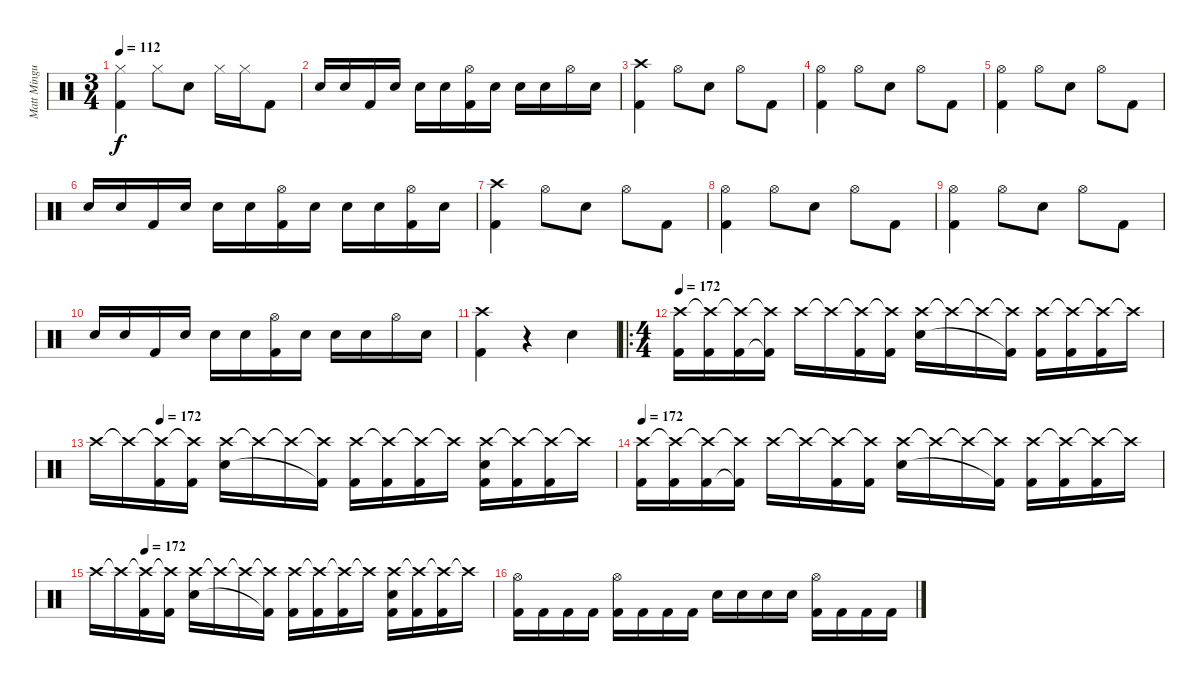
\track ("Matt Mingus" "Matt Mingu") {instrument percussion}
\staff {score}
\articulation defaults
\ts (3 4)
\tempo 112
\clef neutral
\ks c
("Hi-Hat (closed)" "Kick (hit) 2").4{dy f} "Hi-Hat (closed)".8 "Electric Snare (hit)".8 "Hi-Hat (closed)".16 "Hi-Hat (closed)".16 "Kick (hit) 2".8 |
"Electric Snare (hit)".16 "Electric Snare (hit)".16 "Kick (hit) 2".16 "Electric Snare (hit)".16 "Electric Snare (hit)".16 "Electric Snare (hit)".16 ("Hi-Hat (open)" "Kick (hit) 2").16 "Electric Snare (hit)".16 "Electric Snare (hit)".16 "Electric Snare (hit)".16 "Hi-Hat (open)".16 "Electric Snare (hit)".16 |
("Crash high (hit)" "Kick (hit) 2").4 "Hi-Hat (open)".8 "Electric Snare (hit)".8 "Hi-Hat (open)".8 "Kick (hit) 2".8 |
("Hi-Hat (open)" "Kick (hit) 2").4 "Hi-Hat (open)".8 "Electric Snare (hit)".8 "Hi-Hat (open)".8 "Kick (hit) 2".8 |
("Hi-Hat (open)" "Kick (hit) 2").4 "Hi-Hat (open)".8 "Electric Snare (hit)".8 "Hi-Hat (open)".8 "Kick (hit) 2".8 |
"Electric Snare (hit)".16 "Electric Snare (hit)".16 "Kick (hit) 2".16 "Electric Snare (hit)".16 "Electric Snare (hit)".16 "Electric Snare (hit)".16 ("Hi-Hat (open)" "Kick (hit) 2").16 "Electric Snare (hit)".16 "Electric Snare (hit)".16 "Electric Snare (hit)".16 ("Hi-Hat (open)" "Kick (hit) 2").16 "Electric Snare (hit)".16 |
("Crash high (hit)" "Kick (hit) 2").4 "Hi-Hat (open)".8 "Electric Snare (hit)".8 "Hi-Hat (open)".8 "Kick (hit) 2".8 |
("Hi-Hat (open)" "Kick (hit) 2").4 "Hi-Hat (open)".8 "Electric Snare (hit)".8 "Hi-Hat (open)".8 "Kick (hit) 2".8 |
("Hi-Hat (open)" "Kick (hit) 2").4 "Hi-Hat (open)".8 "Electric Snare (hit)".8 "Hi-Hat (open)".8 "Kick (hit) 2".8 |
"Electric Snare (hit)".16 "Electric Snare (hit)".16 "Kick (hit) 2".16 "Electric Snare (hit)".16 "Electric Snare (hit)".16 "Electric Snare (hit)".16 ("Hi-Hat (open)" "Kick (hit) 2").16 "Electric Snare (hit)".16 "Electric Snare (hit)".16 "Electric Snare (hit)".16 "Hi-Hat (open)".16 "Electric Snare (hit)".16 |
("Crash high (hit)" "Kick (hit) 2").4 r.4 "Electric Snare (hit)".4 |
\ro
\ts (4 4)
\tempo 172
("Crash high (hit)" "Kick (hit) 2").16 ("Crash high (hit)"{t} "Kick (hit) 2").16 ("Crash high (hit)"{t} "Kick (hit) 2").16 ("Crash high (hit)"{t} "Kick (hit) 2"{t}).16 "Crash high (hit)".16 "Crash high (hit)"{t}.16 ("Crash high (hit)"{t} "Kick (hit) 2").16 ("Crash high (hit)"{t} "Kick (hit) 2").16 ("Crash high (hit)" "Electric Snare (hit)").16 "Crash high (hit)"{t}.16 "Crash high (hit)"{t}.16 ("Crash high (hit)"{t} "Kick (hit) 2"{t}).16 ("Crash high (hit)" "Kick (hit) 2").16 ("Crash high (hit)"{t} "Kick (hit) 2").16 ("Crash high (hit)"{t} "Kick (hit) 2").16 "Crash high (hit)"{t}.16 |
\tempo (172 0.125)
"Crash high (hit)".16 "Crash high (hit)"{t}.16 ("Crash high (hit)"{t} "Kick (hit) 2").16 ("Crash high (hit)"{t} "Kick (hit) 2").16 ("Crash high (hit)" "Electric Snare (hit)").16 "Crash high (hit)"{t}.16 "Crash high (hit)"{t}.16 ("Crash high (hit)"{t} "Kick (hit) 2"{t}).16 ("Crash high (hit)" "Kick (hit) 2").16 ("Crash high (hit)"{t} "Kick (hit) 2").16 ("Crash high (hit)"{t} "Kick (hit) 2").16 "Crash high (hit)"{t}.16 ("Crash high (hit)" "Electric Snare (hit)" "Kick (hit) 2").16 ("Crash high (hit)"{t} "Kick (hit) 2").16 ("Crash high (hit)"{t} "Kick (hit) 2").16 "Crash high (hit)"{t}.16 |
\tempo 172
("Crash high (hit)" "Kick (hit) 2").16 ("Crash high (hit)"{t} "Kick (hit) 2").16 ("Crash high (hit)"{t} "Kick (hit) 2").16 ("Crash high (hit)"{t} "Kick (hit) 2"{t}).16 "Crash high (hit)".16 "Crash high (hit)"{t}.16 ("Crash high (hit)"{t} "Kick (hit) 2").16 ("Crash high (hit)"{t} "Kick (hit) 2").16 ("Crash high (hit)" "Electric Snare (hit)").16 "Crash high (hit)"{t}.16 "Crash high (hit)"{t}.16 ("Crash high (hit)"{t} "Kick (hit) 2"{t}).16 ("Crash high (hit)" "Kick (hit) 2").16 ("Crash high (hit)"{t} "Kick (hit) 2").16 ("Crash high (hit)"{t} "Kick (hit) 2").16 "Crash high (hit)"{t}.16 |
\tempo (172 0.125)
"Crash high (hit)".16 "Crash high (hit)"{t}.16 ("Crash high (hit)"{t} "Kick (hit) 2").16 ("Crash high (hit)"{t} "Kick (hit) 2").16 ("Crash high (hit)" "Electric Snare (hit)").16 "Crash high (hit)"{t}.16 "Crash high (hit)"{t}.16 ("Crash high (hit)"{t} "Kick (hit) 2"{t}).16 ("Crash high (hit)" "Kick (hit) 2").16 ("Crash high (hit)"{t} "Kick (hit) 2").16 ("Crash high (hit)"{t} "Kick (hit) 2").16 "Crash high (hit)"{t}.16 ("Crash high (hit)" "Electric Snare (hit)" "Kick (hit) 2").16 ("Crash high (hit)"{t} "Kick (hit) 2").16 ("Crash high (hit)"{t} "Kick (hit) 2").16 "Crash high (hit)"{t}.16 |
("Hi-Hat (open)" "Kick (hit) 2").16 "Kick (hit) 2".16 "Kick (hit) 2".16 "Kick (hit) 2".16 ("Hi-Hat (open)" "Kick (hit) 2").16 "Kick (hit) 2".16 "Kick (hit) 2".16 "Kick (hit) 2".16 "Electric Snare (hit)".16 "Electric Snare (hit)".16 "Electric Snare (hit)".16 "Electric Snare (hit)".16 ("Hi-Hat (open)" "Kick (hit) 2").16 "Kick (hit) 2".16 "Kick (hit) 2".16 "Kick (hit) 2".16
